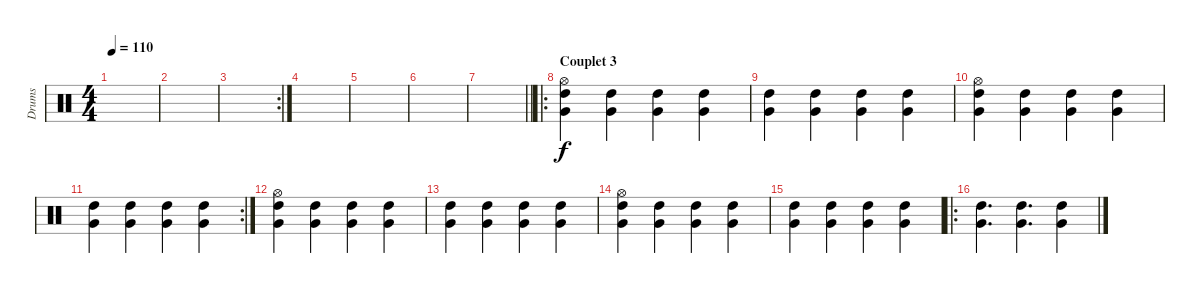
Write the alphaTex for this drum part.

\track ("Drums" "Drums") {instrument percussion}
\staff {score}
\articulation defaults
\ts (4 4)
\tempo 110
\clef neutral
\ks c
|
|
\rc 2
|
|
|
|
\barLineRight lightlight
|
\ro
\section ("" "Couplet 3")
("Hi-Hat (open)" "Very Low Tom (hit)" "High Tom (hit)").4 ("Very Low Tom (hit)" "High Tom (hit)").4 ("Very Low Tom (hit)" "High Tom (hit)").4 ("Very Low Tom (hit)" "High Tom (hit)").4 |
("Very Low Tom (hit)" "High Tom (hit)").4 ("Very Low Tom (hit)" "High Tom (hit)").4 ("Very Low Tom (hit)" "High Tom (hit)").4 ("Very Low Tom (hit)" "High Tom (hit)").4 |
("Hi-Hat (open)" "Very Low Tom (hit)" "High Tom (hit)").4 ("Very Low Tom (hit)" "High Tom (hit)").4 ("Very Low Tom (hit)" "High Tom (hit)").4 ("Very Low Tom (hit)" "High Tom (hit)").4 |
\rc 2
("Very Low Tom (hit)" "High Tom (hit)").4 ("Very Low Tom (hit)" "High Tom (hit)").4 ("Very Low Tom (hit)" "High Tom (hit)").4 ("Very Low Tom (hit)" "High Tom (hit)").4 |
("Hi-Hat (open)" "Very Low Tom (hit)" "High Tom (hit)").4 ("Very Low Tom (hit)" "High Tom (hit)").4 ("Very Low Tom (hit)" "High Tom (hit)").4 ("Very Low Tom (hit)" "High Tom (hit)").4 |
("Very Low Tom (hit)" "High Tom (hit)").4 ("Very Low Tom (hit)" "High Tom (hit)").4 ("Very Low Tom (hit)" "High Tom (hit)").4 ("Very Low Tom (hit)" "High Tom (hit)").4 |
("Hi-Hat (open)" "Very Low Tom (hit)" "High Tom (hit)").4 ("Very Low Tom (hit)" "High Tom (hit)").4 ("Very Low Tom (hit)" "High Tom (hit)").4 ("Very Low Tom (hit)" "High Tom (hit)").4 |
("Very Low Tom (hit)" "High Tom (hit)").4 ("Very Low Tom (hit)" "High Tom (hit)").4 ("Very Low Tom (hit)" "High Tom (hit)").4 ("Very Low Tom (hit)" "High Tom (hit)").4 |
\ro
("Very Low Tom (hit)" "High Tom (hit)").4{d} ("Very Low Tom (hit)" "High Tom (hit)").4{d} ("Very Low Tom (hit)" "High Tom (hit)").4
